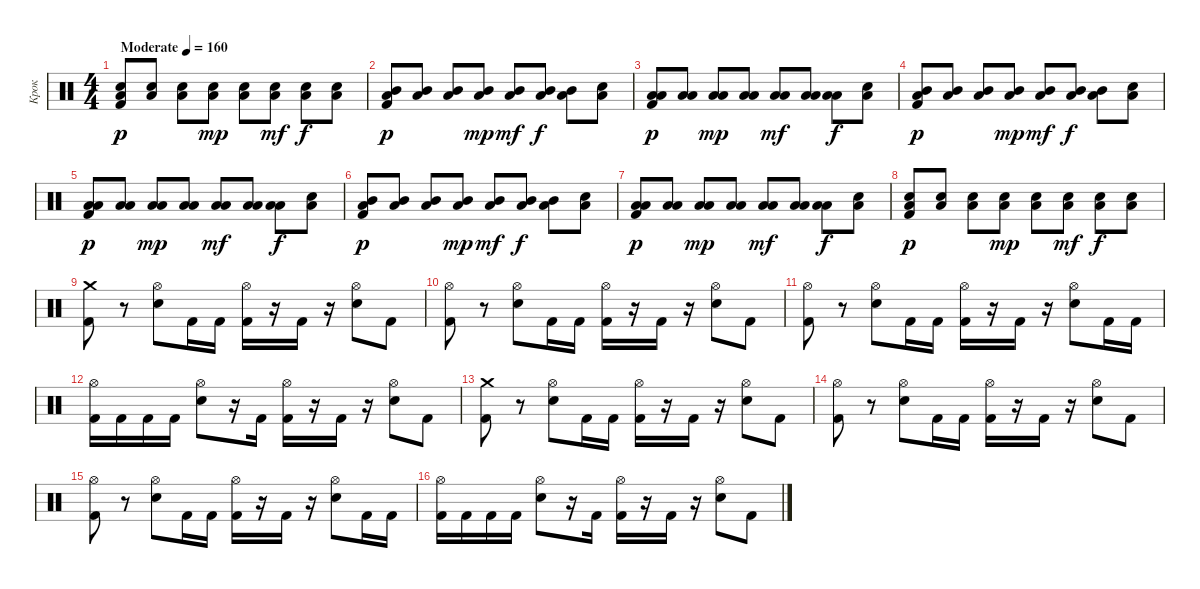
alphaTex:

\track ("Крок" "Крок") {instrument percussion}
\staff {score}
\articulation defaults
\ts (4 4)
\tempo (160 "Moderate")
\clef neutral
\ks c
("Electric Snare (hit)" "Low Floor Tom (hit)" "Kick (hit) 2").8{dy p} ("Electric Snare (hit)" "Low Floor Tom (hit)").8 ("Electric Snare (hit)" "Low Floor Tom (hit)").8 ("Electric Snare (hit)" "Low Floor Tom (hit)").8{dy mp} ("Electric Snare (hit)" "Low Floor Tom (hit)").8 ("Electric Snare (hit)" "Low Floor Tom (hit)").8{dy mf} ("Electric Snare (hit)" "Low Floor Tom (hit)").8{dy f} ("Electric Snare (hit)" "Low Floor Tom (hit)").8 |
("Mid Tom (hit)" "Low Floor Tom (hit)" "Kick (hit) 2").8{dy p} ("Mid Tom (hit)" "Low Floor Tom (hit)").8 ("Mid Tom (hit)" "Low Floor Tom (hit)").8 ("Mid Tom (hit)" "Low Floor Tom (hit)").8{dy mp} ("Mid Tom (hit)" "Low Floor Tom (hit)").8{dy mf} ("Mid Tom (hit)" "Low Floor Tom (hit)").8{dy f} ("Mid Tom (hit)" "Low Floor Tom (hit)").8 ("Electric Snare (hit)" "Low Floor Tom (hit)").8 |
("Low Tom (hit)" "Low Floor Tom (hit)" "Kick (hit) 2").8{dy p} ("Low Tom (hit)" "Low Floor Tom (hit)").8 ("Low Tom (hit)" "Low Floor Tom (hit)").8{dy mp} ("Low Tom (hit)" "Low Floor Tom (hit)").8 ("Low Tom (hit)" "Low Floor Tom (hit)").8{dy mf} ("Low Tom (hit)" "Low Floor Tom (hit)").8 ("Low Tom (hit)" "Low Floor Tom (hit)").8{dy f} ("Electric Snare (hit)" "Low Floor Tom (hit)").8 |
("Mid Tom (hit)" "Low Floor Tom (hit)" "Kick (hit) 2").8{dy p} ("Mid Tom (hit)" "Low Floor Tom (hit)").8 ("Mid Tom (hit)" "Low Floor Tom (hit)").8 ("Mid Tom (hit)" "Low Floor Tom (hit)").8{dy mp} ("Mid Tom (hit)" "Low Floor Tom (hit)").8{dy mf} ("Mid Tom (hit)" "Low Floor Tom (hit)").8{dy f} ("Mid Tom (hit)" "Low Floor Tom (hit)").8 ("Electric Snare (hit)" "Low Floor Tom (hit)").8 |
("Low Tom (hit)" "Low Floor Tom (hit)" "Kick (hit) 2").8{dy p} ("Low Tom (hit)" "Low Floor Tom (hit)").8 ("Low Tom (hit)" "Low Floor Tom (hit)").8{dy mp} ("Low Tom (hit)" "Low Floor Tom (hit)").8 ("Low Tom (hit)" "Low Floor Tom (hit)").8{dy mf} ("Low Tom (hit)" "Low Floor Tom (hit)").8 ("Low Tom (hit)" "Low Floor Tom (hit)").8{dy f} ("Electric Snare (hit)" "Low Floor Tom (hit)").8 |
("Mid Tom (hit)" "Low Floor Tom (hit)" "Kick (hit) 2").8{dy p} ("Mid Tom (hit)" "Low Floor Tom (hit)").8 ("Mid Tom (hit)" "Low Floor Tom (hit)").8 ("Mid Tom (hit)" "Low Floor Tom (hit)").8{dy mp} ("Mid Tom (hit)" "Low Floor Tom (hit)").8{dy mf} ("Mid Tom (hit)" "Low Floor Tom (hit)").8{dy f} ("Mid Tom (hit)" "Low Floor Tom (hit)").8 ("Electric Snare (hit)" "Low Floor Tom (hit)").8 |
("Low Tom (hit)" "Low Floor Tom (hit)" "Kick (hit) 2").8{dy p} ("Low Tom (hit)" "Low Floor Tom (hit)").8 ("Low Tom (hit)" "Low Floor Tom (hit)").8{dy mp} ("Low Tom (hit)" "Low Floor Tom (hit)").8 ("Low Tom (hit)" "Low Floor Tom (hit)").8{dy mf} ("Low Tom (hit)" "Low Floor Tom (hit)").8 ("Low Tom (hit)" "Low Floor Tom (hit)").8{dy f} ("Electric Snare (hit)" "Low Floor Tom (hit)").8 |
("Electric Snare (hit)" "Low Floor Tom (hit)" "Kick (hit) 2").8{dy p} ("Electric Snare (hit)" "Low Floor Tom (hit)").8 ("Electric Snare (hit)" "Low Floor Tom (hit)").8 ("Electric Snare (hit)" "Low Floor Tom (hit)").8{dy mp} ("Electric Snare (hit)" "Low Floor Tom (hit)").8 ("Electric Snare (hit)" "Low Floor Tom (hit)").8{dy mf} ("Electric Snare (hit)" "Low Floor Tom (hit)").8{dy f} ("Electric Snare (hit)" "Low Floor Tom (hit)").8 |
("Kick (hit) 2" "Crash medium (hit)").8 r.8 ("Electric Snare (hit)" "Hi-Hat (open)").8 "Kick (hit) 2".16 "Kick (hit) 2".16 ("Kick (hit) 2" "Hi-Hat (open)").16 r.16 "Kick (hit) 2".16 r.16 ("Electric Snare (hit)" "Hi-Hat (open)").8 "Kick (hit) 2".8 |
("Kick (hit) 2" "Hi-Hat (open)").8 r.8 ("Electric Snare (hit)" "Hi-Hat (open)").8 "Kick (hit) 2".16 "Kick (hit) 2".16 ("Kick (hit) 2" "Hi-Hat (open)").16 r.16 "Kick (hit) 2".16 r.16 ("Electric Snare (hit)" "Hi-Hat (open)").8 "Kick (hit) 2".8 |
("Kick (hit) 2" "Hi-Hat (open)").8 r.8 ("Electric Snare (hit)" "Hi-Hat (open)").8 "Kick (hit) 2".16 "Kick (hit) 2".16 ("Kick (hit) 2" "Hi-Hat (open)").16 r.16 "Kick (hit) 2".16 r.16 ("Electric Snare (hit)" "Hi-Hat (open)").8 "Kick (hit) 2".16 "Kick (hit) 2".16 |
("Kick (hit) 2" "Hi-Hat (open)").16 "Kick (hit) 2".16 "Kick (hit) 2".16 "Kick (hit) 2".16 ("Electric Snare (hit)" "Hi-Hat (open)").8 r.16 "Kick (hit) 2".16 ("Kick (hit) 2" "Hi-Hat (open)").16 r.16 "Kick (hit) 2".16 r.16 ("Electric Snare (hit)" "Hi-Hat (open)").8 "Kick (hit) 2".8 |
("Kick (hit) 2" "Crash medium (hit)").8 r.8 ("Electric Snare (hit)" "Hi-Hat (open)").8 "Kick (hit) 2".16 "Kick (hit) 2".16 ("Kick (hit) 2" "Hi-Hat (open)").16 r.16 "Kick (hit) 2".16 r.16 ("Electric Snare (hit)" "Hi-Hat (open)").8 "Kick (hit) 2".8 |
("Kick (hit) 2" "Hi-Hat (open)").8 r.8 ("Electric Snare (hit)" "Hi-Hat (open)").8 "Kick (hit) 2".16 "Kick (hit) 2".16 ("Kick (hit) 2" "Hi-Hat (open)").16 r.16 "Kick (hit) 2".16 r.16 ("Electric Snare (hit)" "Hi-Hat (open)").8 "Kick (hit) 2".8 |
("Kick (hit) 2" "Hi-Hat (open)").8 r.8 ("Electric Snare (hit)" "Hi-Hat (open)").8 "Kick (hit) 2".16 "Kick (hit) 2".16 ("Kick (hit) 2" "Hi-Hat (open)").16 r.16 "Kick (hit) 2".16 r.16 ("Electric Snare (hit)" "Hi-Hat (open)").8 "Kick (hit) 2".16 "Kick (hit) 2".16 |
("Kick (hit) 2" "Hi-Hat (open)").16 "Kick (hit) 2".16 "Kick (hit) 2".16 "Kick (hit) 2".16 ("Electric Snare (hit)" "Hi-Hat (open)").8 r.16 "Kick (hit) 2".16 ("Kick (hit) 2" "Hi-Hat (open)").16 r.16 "Kick (hit) 2".16 r.16 ("Electric Snare (hit)" "Hi-Hat (open)").8 "Kick (hit) 2".8
